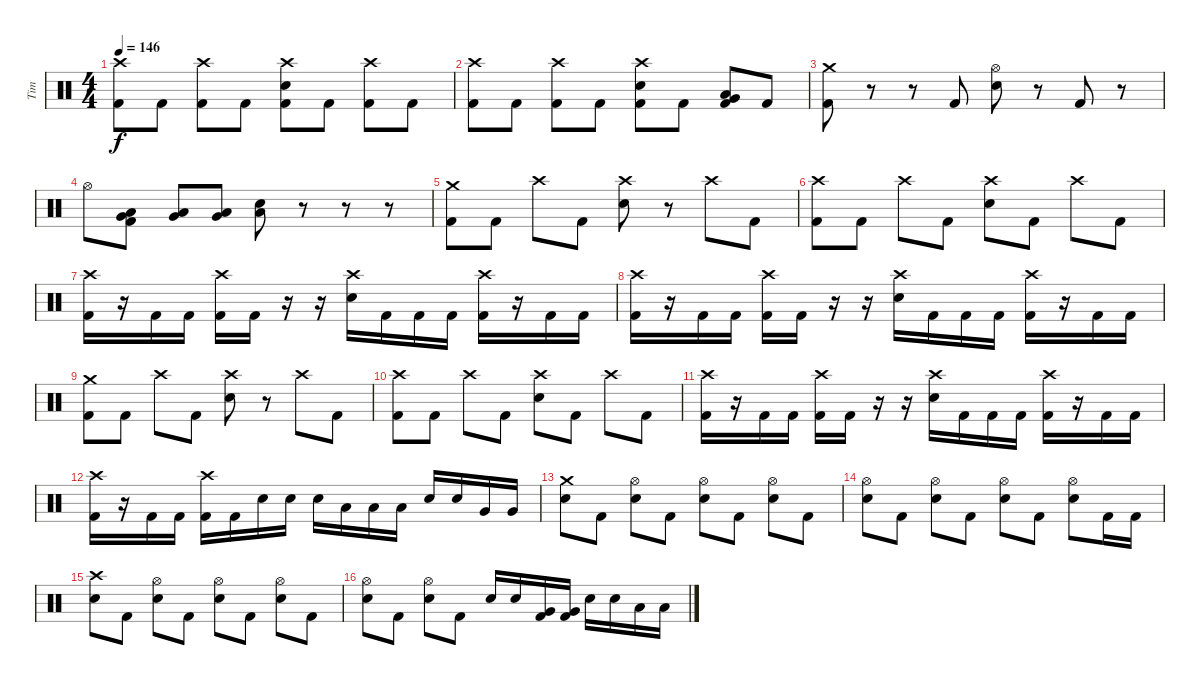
\track ("Tim" "Tim") {instrument percussion}
\staff {score}
\articulation defaults
\ts (4 4)
\tempo 146
\clef neutral
\ks c
("Crash high (hit)" "Kick (hit) 2").8{dy f} "Kick (hit) 2".8 ("Crash high (hit)" "Kick (hit) 2").8 "Kick (hit) 2".8 ("Crash high (hit)" "Electric Snare (hit)" "Kick (hit) 2").8 "Kick (hit) 2".8 ("Crash high (hit)" "Kick (hit) 2").8 "Kick (hit) 2".8 |
("Crash high (hit)" "Kick (hit) 2").8 "Kick (hit) 2".8 ("Crash high (hit)" "Kick (hit) 2").8 "Kick (hit) 2".8 ("Crash high (hit)" "Electric Snare (hit)" "Kick (hit) 2").8 "Kick (hit) 2".8 ("Low Tom (hit)" "Very Low Tom (hit)" "Kick (hit) 2").8 "Kick (hit) 2".8 |
("Crash medium (hit)" "Kick (hit) 2").8 r.8 r.8 "Kick (hit) 2".8 ("Hi-Hat (open)" "Electric Snare (hit)").8 r.8 "Kick (hit) 2".8 r.8 |
"Hi-Hat (open)".8 ("Low Floor Tom (hit)" "Very Low Tom (hit)" "Kick (hit) 2").8 ("Low Floor Tom (hit)" "Very Low Tom (hit)").8 ("Low Floor Tom (hit)" "Very Low Tom (hit)").8 ("Low Floor Tom (hit)" "Electric Snare (hit)").8 r.8 r.8 r.8 |
("Crash medium (hit)" "Kick (hit) 2").8 "Kick (hit) 2".8 "Crash high (hit)".8 "Kick (hit) 2".8 ("Crash high (hit)" "Electric Snare (hit)").8 r.8 "Crash high (hit)".8 "Kick (hit) 2".8 |
("Crash high (hit)" "Kick (hit) 2").8 "Kick (hit) 2".8 "Crash high (hit)".8 "Kick (hit) 2".8 ("Crash high (hit)" "Electric Snare (hit)").8 "Kick (hit) 2".8 "Crash high (hit)".8 "Kick (hit) 2".8 |
("Crash high (hit)" "Kick (hit) 2").16 r.16 "Kick (hit) 2".16 "Kick (hit) 2".16 ("Crash high (hit)" "Kick (hit) 2").16 "Kick (hit) 2".16 r.16 r.16 ("Crash high (hit)" "Electric Snare (hit)").16 "Kick (hit) 2".16 "Kick (hit) 2".16 "Kick (hit) 2".16 ("Crash high (hit)" "Kick (hit) 2").16 r.16 "Kick (hit) 2".16 "Kick (hit) 2".16 |
("Crash high (hit)" "Kick (hit) 2").16 r.16 "Kick (hit) 2".16 "Kick (hit) 2".16 ("Crash high (hit)" "Kick (hit) 2").16 "Kick (hit) 2".16 r.16 r.16 ("Crash high (hit)" "Electric Snare (hit)").16 "Kick (hit) 2".16 "Kick (hit) 2".16 "Kick (hit) 2".16 ("Crash high (hit)" "Kick (hit) 2").16 r.16 "Kick (hit) 2".16 "Kick (hit) 2".16 |
("Crash medium (hit)" "Kick (hit) 2").8 "Kick (hit) 2".8 "Crash high (hit)".8 "Kick (hit) 2".8 ("Crash high (hit)" "Electric Snare (hit)").8 r.8 "Crash high (hit)".8 "Kick (hit) 2".8 |
("Crash high (hit)" "Kick (hit) 2").8 "Kick (hit) 2".8 "Crash high (hit)".8 "Kick (hit) 2".8 ("Crash high (hit)" "Electric Snare (hit)").8 "Kick (hit) 2".8 "Crash high (hit)".8 "Kick (hit) 2".8 |
("Crash high (hit)" "Kick (hit) 2").16 r.16 "Kick (hit) 2".16 "Kick (hit) 2".16 ("Crash high (hit)" "Kick (hit) 2").16 "Kick (hit) 2".16 r.16 r.16 ("Crash high (hit)" "Electric Snare (hit)").16 "Kick (hit) 2".16 "Kick (hit) 2".16 "Kick (hit) 2".16 ("Crash high (hit)" "Kick (hit) 2").16 r.16 "Kick (hit) 2".16 "Kick (hit) 2".16 |
("Crash high (hit)" "Kick (hit) 2").16 r.16 "Kick (hit) 2".16 "Kick (hit) 2".16 ("Crash high (hit)" "Kick (hit) 2").16 "Kick (hit) 2".16 "Electric Snare (hit)".16 "Electric Snare (hit)".16 "Electric Snare (hit)".16 "Low Tom (hit)".16 "Low Tom (hit)".16 "Low Tom (hit)".16 "Electric Snare (hit)".16 "Electric Snare (hit)".16 "Very Low Tom (hit)".16 "Very Low Tom (hit)".16 |
("Crash medium (hit)" "Electric Snare (hit)").8 "Kick (hit) 2".8 ("Hi-Hat (open)" "Electric Snare (hit)").8 "Kick (hit) 2".8 ("Hi-Hat (open)" "Electric Snare (hit)").8 "Kick (hit) 2".8 ("Hi-Hat (open)" "Electric Snare (hit)").8 "Kick (hit) 2".8 |
("Hi-Hat (open)" "Electric Snare (hit)").8 "Kick (hit) 2".8 ("Hi-Hat (open)" "Electric Snare (hit)").8 "Kick (hit) 2".8 ("Hi-Hat (open)" "Electric Snare (hit)").8 "Kick (hit) 2".8 ("Hi-Hat (open)" "Electric Snare (hit)").8 "Kick (hit) 2".16 "Kick (hit) 2".16 |
("Crash high (hit)" "Electric Snare (hit)").8 "Kick (hit) 2".8 ("Hi-Hat (open)" "Electric Snare (hit)").8 "Kick (hit) 2".8 ("Hi-Hat (open)" "Electric Snare (hit)").8 "Kick (hit) 2".8 ("Hi-Hat (open)" "Electric Snare (hit)").8 "Kick (hit) 2".8 |
("Hi-Hat (open)" "Electric Snare (hit)").8 "Kick (hit) 2".8 ("Hi-Hat (open)" "Electric Snare (hit)").8 "Kick (hit) 2".8 "Electric Snare (hit)".16 "Electric Snare (hit)".16 ("Very Low Tom (hit)" "Kick (hit) 2").16 ("Very Low Tom (hit)" "Kick (hit) 2").16 "Electric Snare (hit)".16 "Electric Snare (hit)".16 "Low Tom (hit)".16 "Low Tom (hit)".16
